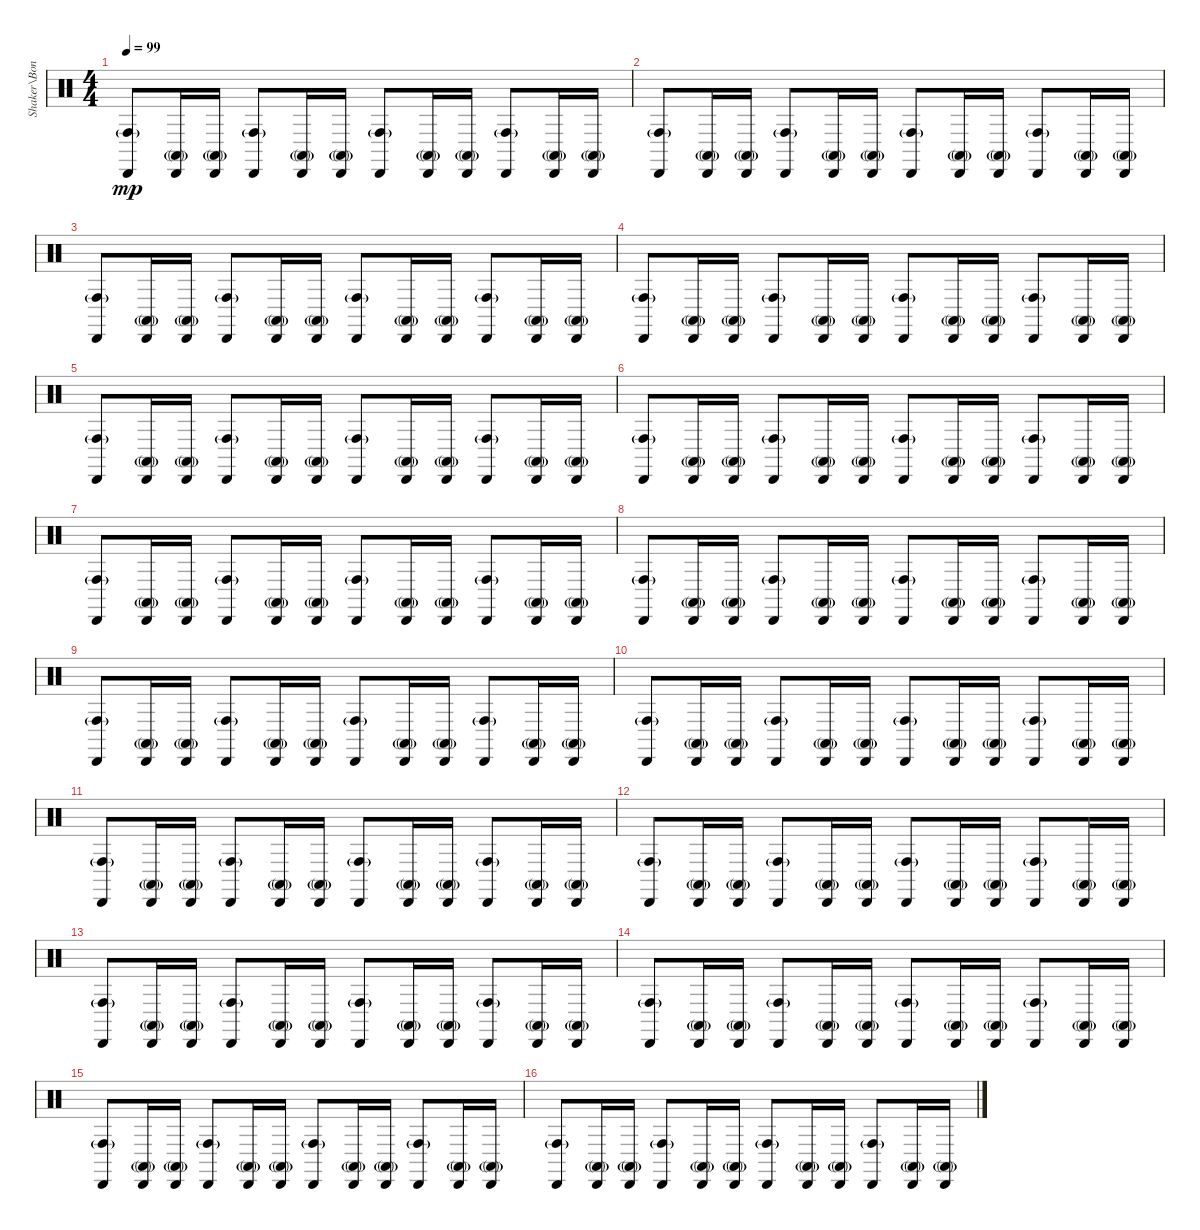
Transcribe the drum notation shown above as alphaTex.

\track ("Shaker\\Bongos" "Shaker\\Bon") {instrument percussion}
\staff {score}
\articulation defaults
\ts (4 4)
\tempo 99
\clef neutral
\ks c
("Cabasa (hit)" "Conga high (hit)"{g}).8{dy mp} ("Cabasa (hit)" "Conga high (mute)"{g}).16 ("Cabasa (hit)" "Conga high (mute)"{g}).16 ("Cabasa (hit)" "Conga high (hit)"{g}).8 ("Cabasa (hit)" "Conga high (mute)"{g}).16 ("Cabasa (hit)" "Conga high (mute)"{g}).16 ("Cabasa (hit)" "Conga high (hit)"{g}).8 ("Cabasa (hit)" "Conga high (mute)"{g}).16 ("Cabasa (hit)" "Conga high (mute)"{g}).16 ("Cabasa (hit)" "Conga high (hit)"{g}).8 ("Cabasa (hit)" "Conga high (mute)"{g}).16 ("Cabasa (hit)" "Conga high (mute)"{g}).16 |
("Cabasa (hit)" "Conga high (hit)"{g}).8 ("Cabasa (hit)" "Conga high (mute)"{g}).16 ("Cabasa (hit)" "Conga high (mute)"{g}).16 ("Cabasa (hit)" "Conga high (hit)"{g}).8 ("Cabasa (hit)" "Conga high (mute)"{g}).16 ("Cabasa (hit)" "Conga high (mute)"{g}).16 ("Cabasa (hit)" "Conga high (hit)"{g}).8 ("Cabasa (hit)" "Conga high (mute)"{g}).16 ("Cabasa (hit)" "Conga high (mute)"{g}).16 ("Cabasa (hit)" "Conga high (hit)"{g}).8 ("Cabasa (hit)" "Conga high (mute)"{g}).16 ("Cabasa (hit)" "Conga high (mute)"{g}).16 |
("Cabasa (hit)" "Conga high (hit)"{g}).8 ("Cabasa (hit)" "Conga high (mute)"{g}).16 ("Cabasa (hit)" "Conga high (mute)"{g}).16 ("Cabasa (hit)" "Conga high (hit)"{g}).8 ("Cabasa (hit)" "Conga high (mute)"{g}).16 ("Cabasa (hit)" "Conga high (mute)"{g}).16 ("Cabasa (hit)" "Conga high (hit)"{g}).8 ("Cabasa (hit)" "Conga high (mute)"{g}).16 ("Cabasa (hit)" "Conga high (mute)"{g}).16 ("Cabasa (hit)" "Conga high (hit)"{g}).8 ("Cabasa (hit)" "Conga high (mute)"{g}).16 ("Cabasa (hit)" "Conga high (mute)"{g}).16 |
("Cabasa (hit)" "Conga high (hit)"{g}).8 ("Cabasa (hit)" "Conga high (mute)"{g}).16 ("Cabasa (hit)" "Conga high (mute)"{g}).16 ("Cabasa (hit)" "Conga high (hit)"{g}).8 ("Cabasa (hit)" "Conga high (mute)"{g}).16 ("Cabasa (hit)" "Conga high (mute)"{g}).16 ("Cabasa (hit)" "Conga high (hit)"{g}).8 ("Cabasa (hit)" "Conga high (mute)"{g}).16 ("Cabasa (hit)" "Conga high (mute)"{g}).16 ("Cabasa (hit)" "Conga high (hit)"{g}).8 ("Cabasa (hit)" "Conga high (mute)"{g}).16 ("Cabasa (hit)" "Conga high (mute)"{g}).16 |
("Cabasa (hit)" "Conga high (hit)"{g}).8 ("Cabasa (hit)" "Conga high (mute)"{g}).16 ("Cabasa (hit)" "Conga high (mute)"{g}).16 ("Cabasa (hit)" "Conga high (hit)"{g}).8 ("Cabasa (hit)" "Conga high (mute)"{g}).16 ("Cabasa (hit)" "Conga high (mute)"{g}).16 ("Cabasa (hit)" "Conga high (hit)"{g}).8 ("Cabasa (hit)" "Conga high (mute)"{g}).16 ("Cabasa (hit)" "Conga high (mute)"{g}).16 ("Cabasa (hit)" "Conga high (hit)"{g}).8 ("Cabasa (hit)" "Conga high (mute)"{g}).16 ("Cabasa (hit)" "Conga high (mute)"{g}).16 |
("Cabasa (hit)" "Conga high (hit)"{g}).8 ("Cabasa (hit)" "Conga high (mute)"{g}).16 ("Cabasa (hit)" "Conga high (mute)"{g}).16 ("Cabasa (hit)" "Conga high (hit)"{g}).8 ("Cabasa (hit)" "Conga high (mute)"{g}).16 ("Cabasa (hit)" "Conga high (mute)"{g}).16 ("Cabasa (hit)" "Conga high (hit)"{g}).8 ("Cabasa (hit)" "Conga high (mute)"{g}).16 ("Cabasa (hit)" "Conga high (mute)"{g}).16 ("Cabasa (hit)" "Conga high (hit)"{g}).8 ("Cabasa (hit)" "Conga high (mute)"{g}).16 ("Cabasa (hit)" "Conga high (mute)"{g}).16 |
("Cabasa (hit)" "Conga high (hit)"{g}).8 ("Cabasa (hit)" "Conga high (mute)"{g}).16 ("Cabasa (hit)" "Conga high (mute)"{g}).16 ("Cabasa (hit)" "Conga high (hit)"{g}).8 ("Cabasa (hit)" "Conga high (mute)"{g}).16 ("Cabasa (hit)" "Conga high (mute)"{g}).16 ("Cabasa (hit)" "Conga high (hit)"{g}).8 ("Cabasa (hit)" "Conga high (mute)"{g}).16 ("Cabasa (hit)" "Conga high (mute)"{g}).16 ("Cabasa (hit)" "Conga high (hit)"{g}).8 ("Cabasa (hit)" "Conga high (mute)"{g}).16 ("Cabasa (hit)" "Conga high (mute)"{g}).16 |
("Cabasa (hit)" "Conga high (hit)"{g}).8 ("Cabasa (hit)" "Conga high (mute)"{g}).16 ("Cabasa (hit)" "Conga high (mute)"{g}).16 ("Cabasa (hit)" "Conga high (hit)"{g}).8 ("Cabasa (hit)" "Conga high (mute)"{g}).16 ("Cabasa (hit)" "Conga high (mute)"{g}).16 ("Cabasa (hit)" "Conga high (hit)"{g}).8 ("Cabasa (hit)" "Conga high (mute)"{g}).16 ("Cabasa (hit)" "Conga high (mute)"{g}).16 ("Cabasa (hit)" "Conga high (hit)"{g}).8 ("Cabasa (hit)" "Conga high (mute)"{g}).16 ("Cabasa (hit)" "Conga high (mute)"{g}).16 |
("Cabasa (hit)" "Conga high (hit)"{g}).8 ("Cabasa (hit)" "Conga high (mute)"{g}).16 ("Cabasa (hit)" "Conga high (mute)"{g}).16 ("Cabasa (hit)" "Conga high (hit)"{g}).8 ("Cabasa (hit)" "Conga high (mute)"{g}).16 ("Cabasa (hit)" "Conga high (mute)"{g}).16 ("Cabasa (hit)" "Conga high (hit)"{g}).8 ("Cabasa (hit)" "Conga high (mute)"{g}).16 ("Cabasa (hit)" "Conga high (mute)"{g}).16 ("Cabasa (hit)" "Conga high (hit)"{g}).8 ("Cabasa (hit)" "Conga high (mute)"{g}).16 ("Cabasa (hit)" "Conga high (mute)"{g}).16 |
("Cabasa (hit)" "Conga high (hit)"{g}).8 ("Cabasa (hit)" "Conga high (mute)"{g}).16 ("Cabasa (hit)" "Conga high (mute)"{g}).16 ("Cabasa (hit)" "Conga high (hit)"{g}).8 ("Cabasa (hit)" "Conga high (mute)"{g}).16 ("Cabasa (hit)" "Conga high (mute)"{g}).16 ("Cabasa (hit)" "Conga high (hit)"{g}).8 ("Cabasa (hit)" "Conga high (mute)"{g}).16 ("Cabasa (hit)" "Conga high (mute)"{g}).16 ("Cabasa (hit)" "Conga high (hit)"{g}).8 ("Cabasa (hit)" "Conga high (mute)"{g}).16 ("Cabasa (hit)" "Conga high (mute)"{g}).16 |
("Cabasa (hit)" "Conga high (hit)"{g}).8 ("Cabasa (hit)" "Conga high (mute)"{g}).16 ("Cabasa (hit)" "Conga high (mute)"{g}).16 ("Cabasa (hit)" "Conga high (hit)"{g}).8 ("Cabasa (hit)" "Conga high (mute)"{g}).16 ("Cabasa (hit)" "Conga high (mute)"{g}).16 ("Cabasa (hit)" "Conga high (hit)"{g}).8 ("Cabasa (hit)" "Conga high (mute)"{g}).16 ("Cabasa (hit)" "Conga high (mute)"{g}).16 ("Cabasa (hit)" "Conga high (hit)"{g}).8 ("Cabasa (hit)" "Conga high (mute)"{g}).16 ("Cabasa (hit)" "Conga high (mute)"{g}).16 |
("Cabasa (hit)" "Conga high (hit)"{g}).8 ("Cabasa (hit)" "Conga high (mute)"{g}).16 ("Cabasa (hit)" "Conga high (mute)"{g}).16 ("Cabasa (hit)" "Conga high (hit)"{g}).8 ("Cabasa (hit)" "Conga high (mute)"{g}).16 ("Cabasa (hit)" "Conga high (mute)"{g}).16 ("Cabasa (hit)" "Conga high (hit)"{g}).8 ("Cabasa (hit)" "Conga high (mute)"{g}).16 ("Cabasa (hit)" "Conga high (mute)"{g}).16 ("Cabasa (hit)" "Conga high (hit)"{g}).8 ("Cabasa (hit)" "Conga high (mute)"{g}).16 ("Cabasa (hit)" "Conga high (mute)"{g}).16 |
("Cabasa (hit)" "Conga high (hit)"{g}).8 ("Cabasa (hit)" "Conga high (mute)"{g}).16 ("Cabasa (hit)" "Conga high (mute)"{g}).16 ("Cabasa (hit)" "Conga high (hit)"{g}).8 ("Cabasa (hit)" "Conga high (mute)"{g}).16 ("Cabasa (hit)" "Conga high (mute)"{g}).16 ("Cabasa (hit)" "Conga high (hit)"{g}).8 ("Cabasa (hit)" "Conga high (mute)"{g}).16 ("Cabasa (hit)" "Conga high (mute)"{g}).16 ("Cabasa (hit)" "Conga high (hit)"{g}).8 ("Cabasa (hit)" "Conga high (mute)"{g}).16 ("Cabasa (hit)" "Conga high (mute)"{g}).16 |
("Cabasa (hit)" "Conga high (hit)"{g}).8 ("Cabasa (hit)" "Conga high (mute)"{g}).16 ("Cabasa (hit)" "Conga high (mute)"{g}).16 ("Cabasa (hit)" "Conga high (hit)"{g}).8 ("Cabasa (hit)" "Conga high (mute)"{g}).16 ("Cabasa (hit)" "Conga high (mute)"{g}).16 ("Cabasa (hit)" "Conga high (hit)"{g}).8 ("Cabasa (hit)" "Conga high (mute)"{g}).16 ("Cabasa (hit)" "Conga high (mute)"{g}).16 ("Cabasa (hit)" "Conga high (hit)"{g}).8 ("Cabasa (hit)" "Conga high (mute)"{g}).16 ("Cabasa (hit)" "Conga high (mute)"{g}).16 |
("Cabasa (hit)" "Conga high (hit)"{g}).8 ("Cabasa (hit)" "Conga high (mute)"{g}).16 ("Cabasa (hit)" "Conga high (mute)"{g}).16 ("Cabasa (hit)" "Conga high (hit)"{g}).8 ("Cabasa (hit)" "Conga high (mute)"{g}).16 ("Cabasa (hit)" "Conga high (mute)"{g}).16 ("Cabasa (hit)" "Conga high (hit)"{g}).8 ("Cabasa (hit)" "Conga high (mute)"{g}).16 ("Cabasa (hit)" "Conga high (mute)"{g}).16 ("Cabasa (hit)" "Conga high (hit)"{g}).8 ("Cabasa (hit)" "Conga high (mute)"{g}).16 ("Cabasa (hit)" "Conga high (mute)"{g}).16 |
("Cabasa (hit)" "Conga high (hit)"{g}).8 ("Cabasa (hit)" "Conga high (mute)"{g}).16 ("Cabasa (hit)" "Conga high (mute)"{g}).16 ("Cabasa (hit)" "Conga high (hit)"{g}).8 ("Cabasa (hit)" "Conga high (mute)"{g}).16 ("Cabasa (hit)" "Conga high (mute)"{g}).16 ("Cabasa (hit)" "Conga high (hit)"{g}).8 ("Cabasa (hit)" "Conga high (mute)"{g}).16 ("Cabasa (hit)" "Conga high (mute)"{g}).16 ("Cabasa (hit)" "Conga high (hit)"{g}).8 ("Cabasa (hit)" "Conga high (mute)"{g}).16 ("Cabasa (hit)" "Conga high (mute)"{g}).16
